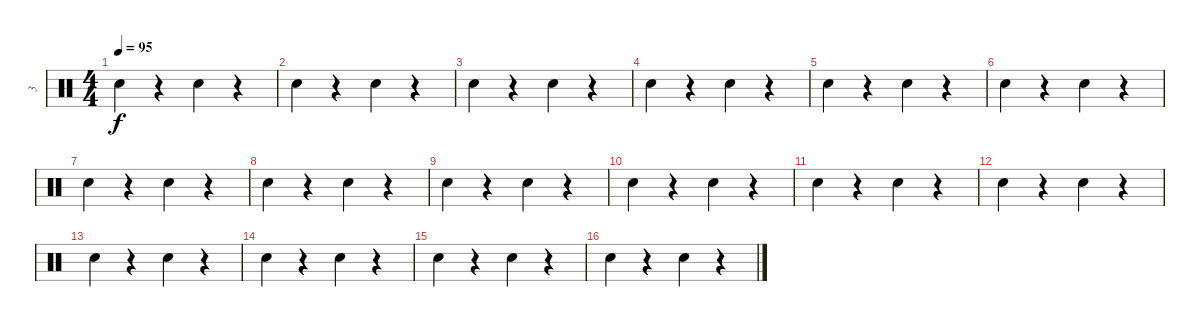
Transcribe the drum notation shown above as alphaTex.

\track ("3" "3") {instrument percussion}
\staff {score}
\articulation defaults
\ts (4 4)
\tempo 95
\clef neutral
\ks c "Hand Clap (hit)".4{dy f}
r.4 "Hand Clap (hit)".4 r.4 |
"Hand Clap (hit)".4 r.4 "Hand Clap (hit)".4 r.4 |
"Hand Clap (hit)".4 r.4 "Hand Clap (hit)".4 r.4 |
"Hand Clap (hit)".4 r.4 "Hand Clap (hit)".4 r.4 |
"Hand Clap (hit)".4 r.4 "Hand Clap (hit)".4 r.4 |
"Hand Clap (hit)".4 r.4 "Hand Clap (hit)".4 r.4 |
"Hand Clap (hit)".4 r.4 "Hand Clap (hit)".4 r.4 |
"Hand Clap (hit)".4 r.4 "Hand Clap (hit)".4 r.4 |
"Hand Clap (hit)".4 r.4 "Hand Clap (hit)".4 r.4 |
"Hand Clap (hit)".4 r.4 "Hand Clap (hit)".4 r.4 |
"Hand Clap (hit)".4 r.4 "Hand Clap (hit)".4 r.4 |
"Hand Clap (hit)".4 r.4 "Hand Clap (hit)".4 r.4 |
"Hand Clap (hit)".4 r.4 "Hand Clap (hit)".4 r.4 |
"Hand Clap (hit)".4 r.4 "Hand Clap (hit)".4 r.4 |
"Hand Clap (hit)".4 r.4 "Hand Clap (hit)".4 r.4 |
"Hand Clap (hit)".4 r.4 "Hand Clap (hit)".4 r.4
